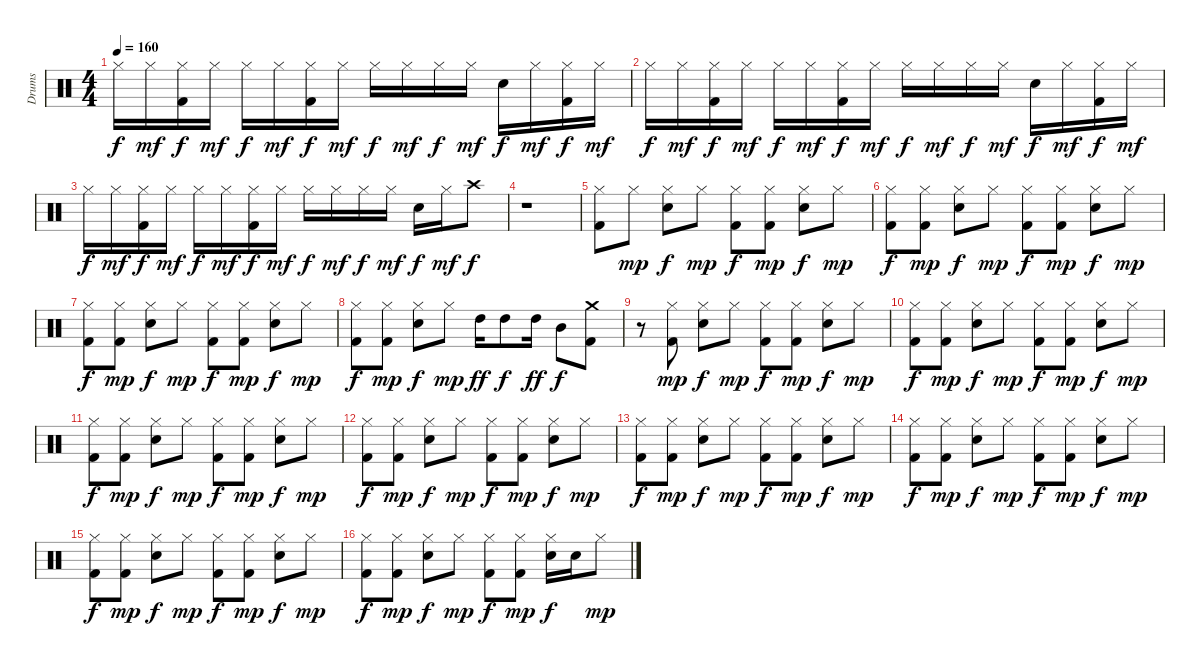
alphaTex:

\track ("Drums" "Drums") {instrument percussion}
\staff {score}
\articulation defaults
\ts (4 4)
\tempo 160
\clef neutral
\ks c "Hi-Hat (closed)".16{dy f} "Hi-Hat (closed)".16{dy mf}
("Kick (hit) 2" "Hi-Hat (closed)").16{dy f} "Hi-Hat (closed)".16{dy mf} "Hi-Hat (closed)".16{dy f} "Hi-Hat (closed)".16{dy mf} ("Kick (hit) 2" "Hi-Hat (closed)").16{dy f} "Hi-Hat (closed)".16{dy mf} "Hi-Hat (closed)".16{dy f} "Hi-Hat (closed)".16{dy mf} "Hi-Hat (closed)".16{dy f} "Hi-Hat (closed)".16{dy mf} "Snare (hit) 2".16{dy f} "Hi-Hat (closed)".16{dy mf} ("Kick (hit) 2" "Hi-Hat (closed)").16{dy f} "Hi-Hat (closed)".16{dy mf} |
"Hi-Hat (closed)".16{dy f} "Hi-Hat (closed)".16{dy mf} ("Kick (hit) 2" "Hi-Hat (closed)").16{dy f} "Hi-Hat (closed)".16{dy mf} "Hi-Hat (closed)".16{dy f} "Hi-Hat (closed)".16{dy mf} ("Kick (hit) 2" "Hi-Hat (closed)").16{dy f} "Hi-Hat (closed)".16{dy mf} "Hi-Hat (closed)".16{dy f} "Hi-Hat (closed)".16{dy mf} "Hi-Hat (closed)".16{dy f} "Hi-Hat (closed)".16{dy mf} "Snare (hit) 2".16{dy f} "Hi-Hat (closed)".16{dy mf} ("Kick (hit) 2" "Hi-Hat (closed)").16{dy f} "Hi-Hat (closed)".16{dy mf} |
"Hi-Hat (closed)".16{dy f} "Hi-Hat (closed)".16{dy mf} ("Kick (hit) 2" "Hi-Hat (closed)").16{dy f} "Hi-Hat (closed)".16{dy mf} "Hi-Hat (closed)".16{dy f} "Hi-Hat (closed)".16{dy mf} ("Kick (hit) 2" "Hi-Hat (closed)").16{dy f} "Hi-Hat (closed)".16{dy mf} "Hi-Hat (closed)".16{dy f} "Hi-Hat (closed)".16{dy mf} "Hi-Hat (closed)".16{dy f} "Hi-Hat (closed)".16{dy mf} "Snare (hit) 2".16{dy f} "Hi-Hat (closed)".16{dy mf} "Crash high (hit)".8{dy f} |
r.1 |
("Kick (hit) 2" "Hi-Hat (closed)").8 "Hi-Hat (closed)".8{dy mp} ("Snare (hit) 2" "Hi-Hat (closed)").8{dy f} "Hi-Hat (closed)".8{dy mp} ("Kick (hit) 2" "Hi-Hat (closed)").8{dy f} ("Kick (hit) 2" "Hi-Hat (closed)").8{dy mp} ("Snare (hit) 2" "Hi-Hat (closed)").8{dy f} "Hi-Hat (closed)".8{dy mp} |
("Kick (hit) 2" "Hi-Hat (closed)").8{dy f} ("Kick (hit) 2" "Hi-Hat (closed)").8{dy mp} ("Snare (hit) 2" "Hi-Hat (closed)").8{dy f} "Hi-Hat (closed)".8{dy mp} ("Kick (hit) 2" "Hi-Hat (closed)").8{dy f} ("Kick (hit) 2" "Hi-Hat (closed)").8{dy mp} ("Snare (hit) 2" "Hi-Hat (closed)").8{dy f} "Hi-Hat (closed)".8{dy mp} |
("Kick (hit) 2" "Hi-Hat (closed)").8{dy f} ("Kick (hit) 2" "Hi-Hat (closed)").8{dy mp} ("Snare (hit) 2" "Hi-Hat (closed)").8{dy f} "Hi-Hat (closed)".8{dy mp} ("Kick (hit) 2" "Hi-Hat (closed)").8{dy f} ("Kick (hit) 2" "Hi-Hat (closed)").8{dy mp} ("Snare (hit) 2" "Hi-Hat (closed)").8{dy f} "Hi-Hat (closed)".8{dy mp} |
("Kick (hit) 2" "Hi-Hat (closed)").8{dy f} ("Kick (hit) 2" "Hi-Hat (closed)").8{dy mp} ("Snare (hit) 2" "Hi-Hat (closed)").8{dy f} "Hi-Hat (closed)".8{dy mp} "High Tom (hit)".16{dy ff} "High Tom (hit)".8{dy f} "High Tom (hit)".16{dy ff} "Mid Tom (hit)".8{dy f} ("Kick (hit) 2" "Crash medium (hit)").8 |
r.8 ("Kick (hit) 2" "Hi-Hat (closed)").8{dy mp} ("Snare (hit) 2" "Hi-Hat (closed)").8{dy f} "Hi-Hat (closed)".8{dy mp} ("Kick (hit) 2" "Hi-Hat (closed)").8{dy f} ("Kick (hit) 2" "Hi-Hat (closed)").8{dy mp} ("Snare (hit) 2" "Hi-Hat (closed)").8{dy f} "Hi-Hat (closed)".8{dy mp} |
("Kick (hit) 2" "Hi-Hat (closed)").8{dy f} ("Kick (hit) 2" "Hi-Hat (closed)").8{dy mp} ("Snare (hit) 2" "Hi-Hat (closed)").8{dy f} "Hi-Hat (closed)".8{dy mp} ("Kick (hit) 2" "Hi-Hat (closed)").8{dy f} ("Kick (hit) 2" "Hi-Hat (closed)").8{dy mp} ("Snare (hit) 2" "Hi-Hat (closed)").8{dy f} "Hi-Hat (closed)".8{dy mp} |
("Kick (hit) 2" "Hi-Hat (closed)").8{dy f} ("Kick (hit) 2" "Hi-Hat (closed)").8{dy mp} ("Snare (hit) 2" "Hi-Hat (closed)").8{dy f} "Hi-Hat (closed)".8{dy mp} ("Kick (hit) 2" "Hi-Hat (closed)").8{dy f} ("Kick (hit) 2" "Hi-Hat (closed)").8{dy mp} ("Snare (hit) 2" "Hi-Hat (closed)").8{dy f} "Hi-Hat (closed)".8{dy mp} |
("Kick (hit) 2" "Hi-Hat (closed)").8{dy f} ("Kick (hit) 2" "Hi-Hat (closed)").8{dy mp} ("Snare (hit) 2" "Hi-Hat (closed)").8{dy f} "Hi-Hat (closed)".8{dy mp} ("Kick (hit) 2" "Hi-Hat (closed)").8{dy f} ("Kick (hit) 2" "Hi-Hat (closed)").8{dy mp} ("Snare (hit) 2" "Hi-Hat (closed)").8{dy f} "Hi-Hat (closed)".8{dy mp} |
("Kick (hit) 2" "Hi-Hat (closed)").8{dy f} ("Kick (hit) 2" "Hi-Hat (closed)").8{dy mp} ("Snare (hit) 2" "Hi-Hat (closed)").8{dy f} "Hi-Hat (closed)".8{dy mp} ("Kick (hit) 2" "Hi-Hat (closed)").8{dy f} ("Kick (hit) 2" "Hi-Hat (closed)").8{dy mp} ("Snare (hit) 2" "Hi-Hat (closed)").8{dy f} "Hi-Hat (closed)".8{dy mp} |
("Kick (hit) 2" "Hi-Hat (closed)").8{dy f} ("Kick (hit) 2" "Hi-Hat (closed)").8{dy mp} ("Snare (hit) 2" "Hi-Hat (closed)").8{dy f} "Hi-Hat (closed)".8{dy mp} ("Kick (hit) 2" "Hi-Hat (closed)").8{dy f} ("Kick (hit) 2" "Hi-Hat (closed)").8{dy mp} ("Snare (hit) 2" "Hi-Hat (closed)").8{dy f} "Hi-Hat (closed)".8{dy mp} |
("Kick (hit) 2" "Hi-Hat (closed)").8{dy f} ("Kick (hit) 2" "Hi-Hat (closed)").8{dy mp} ("Snare (hit) 2" "Hi-Hat (closed)").8{dy f} "Hi-Hat (closed)".8{dy mp} ("Kick (hit) 2" "Hi-Hat (closed)").8{dy f} ("Kick (hit) 2" "Hi-Hat (closed)").8{dy mp} ("Snare (hit) 2" "Hi-Hat (closed)").8{dy f} "Hi-Hat (closed)".8{dy mp} |
("Kick (hit) 2" "Hi-Hat (closed)").8{dy f} ("Kick (hit) 2" "Hi-Hat (closed)").8{dy mp} ("Snare (hit) 2" "Hi-Hat (closed)").8{dy f} "Hi-Hat (closed)".8{dy mp} ("Kick (hit) 2" "Hi-Hat (closed)").8{dy f} ("Kick (hit) 2" "Hi-Hat (closed)").8{dy mp} ("Snare (hit) 2" "Hi-Hat (closed)").16{dy f} "Snare (hit) 2".16 "Hi-Hat (closed)".8{dy mp}
